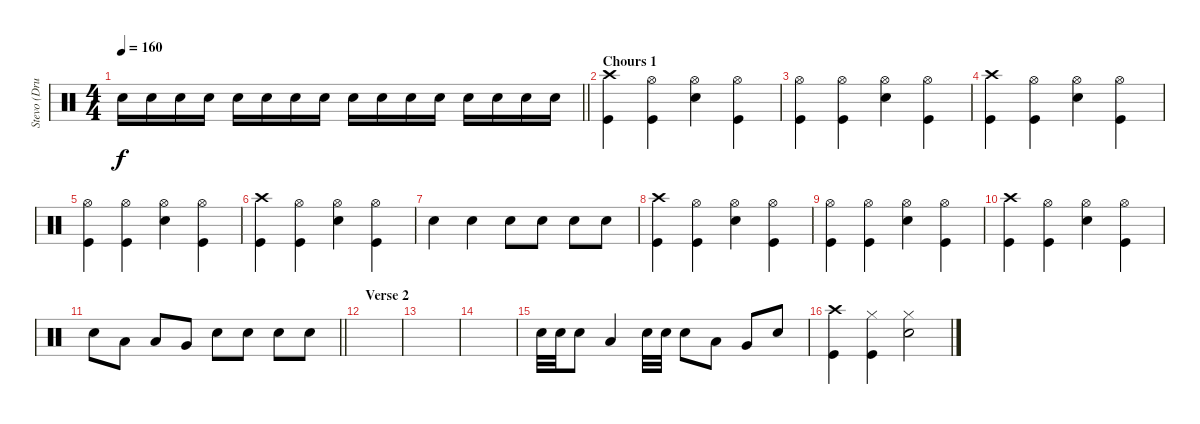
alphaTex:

\track ("Stevo (Drums)" "Stevo (Dru") {instrument percussion}
\staff {score}
\articulation defaults
\ts (4 4)
\tempo 160
\clef neutral
\barLineRight lightlight
\ks c "Electric Snare (hit)".16{dy f} "Electric Snare (hit)".16 "Electric Snare (hit)".16 "Electric Snare (hit)".16 "Electric Snare (hit)".16 "Electric Snare (hit)".16 "Electric Snare (hit)".16 "Electric Snare (hit)".16 "Electric Snare (hit)".16 "Electric Snare (hit)".16 "Electric Snare (hit)".16 "Electric Snare (hit)".16 "Electric Snare (hit)".16 "Electric Snare (hit)".16 "Electric Snare (hit)".16 "Electric Snare (hit)".16
|
\section ("" "Chours 1")
("Crash high (hit)" "Kick (hit)").4 ("Hi-Hat (open)" "Kick (hit)").4 ("Hi-Hat (open)" "Electric Snare (hit)").4 ("Hi-Hat (open)" "Kick (hit)").4 |
("Hi-Hat (open)" "Kick (hit)").4 ("Hi-Hat (open)" "Kick (hit)").4 ("Hi-Hat (open)" "Electric Snare (hit)").4 ("Hi-Hat (open)" "Kick (hit)").4 |
("Crash high (hit)" "Kick (hit)").4 ("Hi-Hat (open)" "Kick (hit)").4 ("Hi-Hat (open)" "Electric Snare (hit)").4 ("Hi-Hat (open)" "Kick (hit)").4 |
("Hi-Hat (open)" "Kick (hit)").4 ("Hi-Hat (open)" "Kick (hit)").4 ("Hi-Hat (open)" "Electric Snare (hit)").4 ("Hi-Hat (open)" "Kick (hit)").4 |
("Crash high (hit)" "Kick (hit)").4 ("Hi-Hat (open)" "Kick (hit)").4 ("Hi-Hat (open)" "Electric Snare (hit)").4 ("Hi-Hat (open)" "Kick (hit)").4 |
"Electric Snare (hit)".4 "Electric Snare (hit)".4 "Electric Snare (hit)".8 "Electric Snare (hit)".8 "Electric Snare (hit)".8 "Electric Snare (hit)".8 |
("Crash high (hit)" "Kick (hit)").4 ("Hi-Hat (open)" "Kick (hit)").4 ("Hi-Hat (open)" "Electric Snare (hit)").4 ("Hi-Hat (open)" "Kick (hit)").4 |
("Hi-Hat (open)" "Kick (hit)").4 ("Hi-Hat (open)" "Kick (hit)").4 ("Hi-Hat (open)" "Electric Snare (hit)").4 ("Hi-Hat (open)" "Kick (hit)").4 |
("Crash high (hit)" "Kick (hit)").4 ("Hi-Hat (open)" "Kick (hit)").4 ("Hi-Hat (open)" "Electric Snare (hit)").4 ("Hi-Hat (open)" "Kick (hit)").4 |
\barLineRight lightlight "Electric Snare (hit)".8 "Low Tom (hit)".8 "Low Tom (hit)".8 "Very Low Tom (hit)".8 "Electric Snare (hit)".8 "Electric Snare (hit)".8 "Electric Snare (hit)".8 "Electric Snare (hit)".8
|
\section ("" "Verse 2")
|
|
|
"Electric Snare (hit)".32 "Electric Snare (hit)".32 "Electric Snare (hit)".8 "Low Tom (hit)".4 "Electric Snare (hit)".32 "Electric Snare (hit)".32 "Electric Snare (hit)".8 "Low Tom (hit)".8 "Very Low Tom (hit)".8 "Electric Snare (hit)".8 |
("Crash high (hit)" "Kick (hit)").4 ("Hi-Hat (closed)" "Kick (hit)").4 ("Hi-Hat (closed)" "Electric Snare (hit)").2
